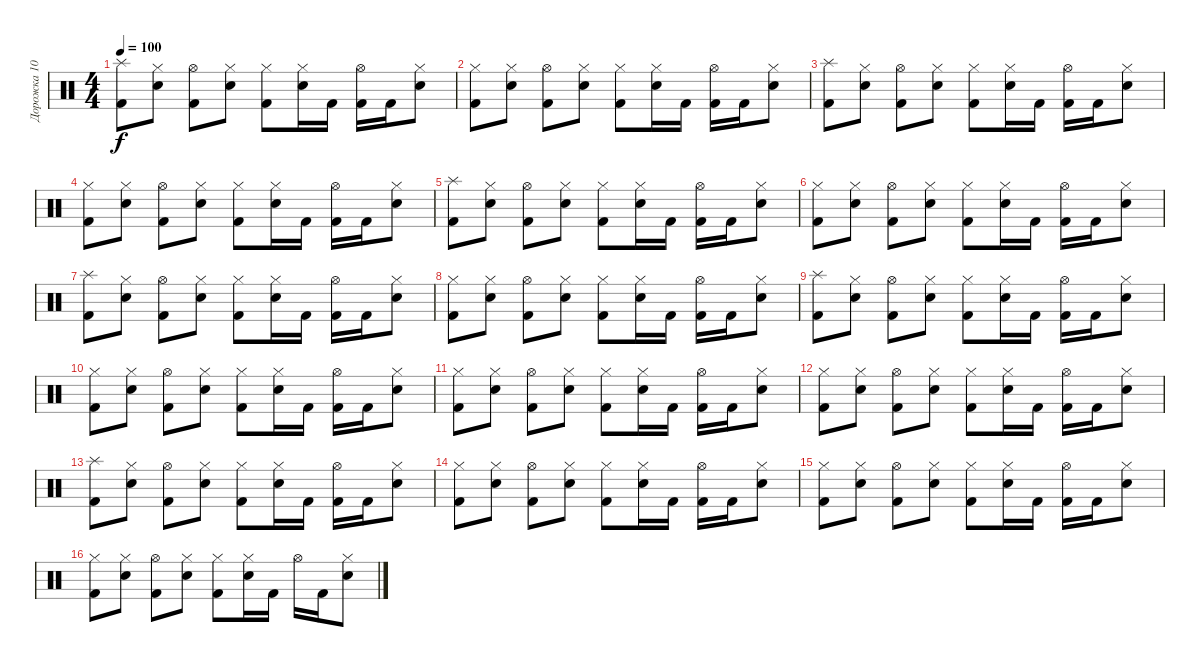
\track ("Дорожка 10" "Дорожка 10") {instrument percussion}
\staff {score}
\articulation defaults
\ts (4 4)
\tempo 100
\clef neutral
\ks c
("Kick (hit) 2" "Splash (hit)").8{dy f} ("Electric Snare (hit)" "Hi-Hat (closed)").8 ("Kick (hit) 2" "Hi-Hat (open)").8 ("Electric Snare (hit)" "Hi-Hat (closed)").8 ("Kick (hit) 2" "Hi-Hat (closed)").8 ("Electric Snare (hit)" "Hi-Hat (closed)").16 "Kick (hit) 2".16 ("Kick (hit) 2" "Hi-Hat (open)").16 "Kick (hit) 2".16 ("Electric Snare (hit)" "Hi-Hat (closed)").8 |
("Kick (hit) 2" "Hi-Hat (closed)").8 ("Electric Snare (hit)" "Hi-Hat (closed)").8 ("Kick (hit) 2" "Hi-Hat (open)").8 ("Electric Snare (hit)" "Hi-Hat (closed)").8 ("Kick (hit) 2" "Hi-Hat (closed)").8 ("Electric Snare (hit)" "Hi-Hat (closed)").16 "Kick (hit) 2".16 ("Kick (hit) 2" "Hi-Hat (open)").16 "Kick (hit) 2".16 ("Electric Snare (hit)" "Hi-Hat (closed)").8 |
("Kick (hit) 2" "Splash (hit)").8 ("Electric Snare (hit)" "Hi-Hat (closed)").8 ("Kick (hit) 2" "Hi-Hat (open)").8 ("Electric Snare (hit)" "Hi-Hat (closed)").8 ("Kick (hit) 2" "Hi-Hat (closed)").8 ("Electric Snare (hit)" "Hi-Hat (closed)").16 "Kick (hit) 2".16 ("Kick (hit) 2" "Hi-Hat (open)").16 "Kick (hit) 2".16 ("Electric Snare (hit)" "Hi-Hat (closed)").8 |
("Kick (hit) 2" "Hi-Hat (closed)").8 ("Electric Snare (hit)" "Hi-Hat (closed)").8 ("Kick (hit) 2" "Hi-Hat (open)").8 ("Electric Snare (hit)" "Hi-Hat (closed)").8 ("Kick (hit) 2" "Hi-Hat (closed)").8 ("Electric Snare (hit)" "Hi-Hat (closed)").16 "Kick (hit) 2".16 ("Kick (hit) 2" "Hi-Hat (open)").16 "Kick (hit) 2".16 ("Electric Snare (hit)" "Hi-Hat (closed)").8 |
("Kick (hit) 2" "Splash (hit)").8 ("Electric Snare (hit)" "Hi-Hat (closed)").8 ("Kick (hit) 2" "Hi-Hat (open)").8 ("Electric Snare (hit)" "Hi-Hat (closed)").8 ("Kick (hit) 2" "Hi-Hat (closed)").8 ("Electric Snare (hit)" "Hi-Hat (closed)").16 "Kick (hit) 2".16 ("Kick (hit) 2" "Hi-Hat (open)").16 "Kick (hit) 2".16 ("Electric Snare (hit)" "Hi-Hat (closed)").8 |
("Kick (hit) 2" "Hi-Hat (closed)").8 ("Electric Snare (hit)" "Hi-Hat (closed)").8 ("Kick (hit) 2" "Hi-Hat (open)").8 ("Electric Snare (hit)" "Hi-Hat (closed)").8 ("Kick (hit) 2" "Hi-Hat (closed)").8 ("Electric Snare (hit)" "Hi-Hat (closed)").16 "Kick (hit) 2".16 ("Kick (hit) 2" "Hi-Hat (open)").16 "Kick (hit) 2".16 ("Electric Snare (hit)" "Hi-Hat (closed)").8 |
("Kick (hit) 2" "Splash (hit)").8 ("Electric Snare (hit)" "Hi-Hat (closed)").8 ("Kick (hit) 2" "Hi-Hat (open)").8 ("Electric Snare (hit)" "Hi-Hat (closed)").8 ("Kick (hit) 2" "Hi-Hat (closed)").8 ("Electric Snare (hit)" "Hi-Hat (closed)").16 "Kick (hit) 2".16 ("Kick (hit) 2" "Hi-Hat (open)").16 "Kick (hit) 2".16 ("Electric Snare (hit)" "Hi-Hat (closed)").8 |
("Kick (hit) 2" "Hi-Hat (closed)").8 ("Electric Snare (hit)" "Hi-Hat (closed)").8 ("Kick (hit) 2" "Hi-Hat (open)").8 ("Electric Snare (hit)" "Hi-Hat (closed)").8 ("Kick (hit) 2" "Hi-Hat (closed)").8 ("Electric Snare (hit)" "Hi-Hat (closed)").16 "Kick (hit) 2".16 ("Kick (hit) 2" "Hi-Hat (open)").16 "Kick (hit) 2".16 ("Electric Snare (hit)" "Hi-Hat (closed)").8 |
("Kick (hit) 2" "Splash (hit)").8 ("Electric Snare (hit)" "Hi-Hat (closed)").8 ("Kick (hit) 2" "Hi-Hat (open)").8 ("Electric Snare (hit)" "Hi-Hat (closed)").8 ("Kick (hit) 2" "Hi-Hat (closed)").8 ("Electric Snare (hit)" "Hi-Hat (closed)").16 "Kick (hit) 2".16 ("Kick (hit) 2" "Hi-Hat (open)").16 "Kick (hit) 2".16 ("Electric Snare (hit)" "Hi-Hat (closed)").8 |
("Kick (hit) 2" "Hi-Hat (closed)").8 ("Electric Snare (hit)" "Hi-Hat (closed)").8 ("Kick (hit) 2" "Hi-Hat (open)").8 ("Electric Snare (hit)" "Hi-Hat (closed)").8 ("Kick (hit) 2" "Hi-Hat (closed)").8 ("Electric Snare (hit)" "Hi-Hat (closed)").16 "Kick (hit) 2".16 ("Kick (hit) 2" "Hi-Hat (open)").16 "Kick (hit) 2".16 ("Electric Snare (hit)" "Hi-Hat (closed)").8 |
("Kick (hit) 2" "Hi-Hat (closed)").8 ("Electric Snare (hit)" "Hi-Hat (closed)").8 ("Kick (hit) 2" "Hi-Hat (open)").8 ("Electric Snare (hit)" "Hi-Hat (closed)").8 ("Kick (hit) 2" "Hi-Hat (closed)").8 ("Electric Snare (hit)" "Hi-Hat (closed)").16 "Kick (hit) 2".16 ("Kick (hit) 2" "Hi-Hat (open)").16 "Kick (hit) 2".16 ("Electric Snare (hit)" "Hi-Hat (closed)").8 |
("Kick (hit) 2" "Hi-Hat (closed)").8 ("Electric Snare (hit)" "Hi-Hat (closed)").8 ("Kick (hit) 2" "Hi-Hat (open)").8 ("Electric Snare (hit)" "Hi-Hat (closed)").8 ("Kick (hit) 2" "Hi-Hat (closed)").8 ("Electric Snare (hit)" "Hi-Hat (closed)").16 "Kick (hit) 2".16 ("Kick (hit) 2" "Hi-Hat (open)").16 "Kick (hit) 2".16 ("Electric Snare (hit)" "Hi-Hat (closed)").8 |
("Kick (hit) 2" "Splash (hit)").8 ("Electric Snare (hit)" "Hi-Hat (closed)").8 ("Kick (hit) 2" "Hi-Hat (open)").8 ("Electric Snare (hit)" "Hi-Hat (closed)").8 ("Kick (hit) 2" "Hi-Hat (closed)").8 ("Electric Snare (hit)" "Hi-Hat (closed)").16 "Kick (hit) 2".16 ("Kick (hit) 2" "Hi-Hat (open)").16 "Kick (hit) 2".16 ("Electric Snare (hit)" "Hi-Hat (closed)").8 |
("Kick (hit) 2" "Hi-Hat (closed)").8 ("Electric Snare (hit)" "Hi-Hat (closed)").8 ("Kick (hit) 2" "Hi-Hat (open)").8 ("Electric Snare (hit)" "Hi-Hat (closed)").8 ("Kick (hit) 2" "Hi-Hat (closed)").8 ("Electric Snare (hit)" "Hi-Hat (closed)").16 "Kick (hit) 2".16 ("Kick (hit) 2" "Hi-Hat (open)").16 "Kick (hit) 2".16 ("Electric Snare (hit)" "Hi-Hat (closed)").8 |
("Kick (hit) 2" "Hi-Hat (closed)").8 ("Electric Snare (hit)" "Hi-Hat (closed)").8 ("Kick (hit) 2" "Hi-Hat (open)").8 ("Electric Snare (hit)" "Hi-Hat (closed)").8 ("Kick (hit) 2" "Hi-Hat (closed)").8 ("Electric Snare (hit)" "Hi-Hat (closed)").16 "Kick (hit) 2".16 ("Kick (hit) 2" "Hi-Hat (open)").16 "Kick (hit) 2".16 ("Electric Snare (hit)" "Hi-Hat (closed)").8 |
("Kick (hit) 2" "Hi-Hat (closed)").8 ("Electric Snare (hit)" "Hi-Hat (closed)").8 ("Kick (hit) 2" "Hi-Hat (open)").8 ("Electric Snare (hit)" "Hi-Hat (closed)").8 ("Kick (hit) 2" "Hi-Hat (closed)").8 ("Electric Snare (hit)" "Hi-Hat (closed)").16 "Kick (hit) 2".16 "Hi-Hat (open)".16 "Kick (hit) 2".16 ("Electric Snare (hit)" "Hi-Hat (closed)").8
